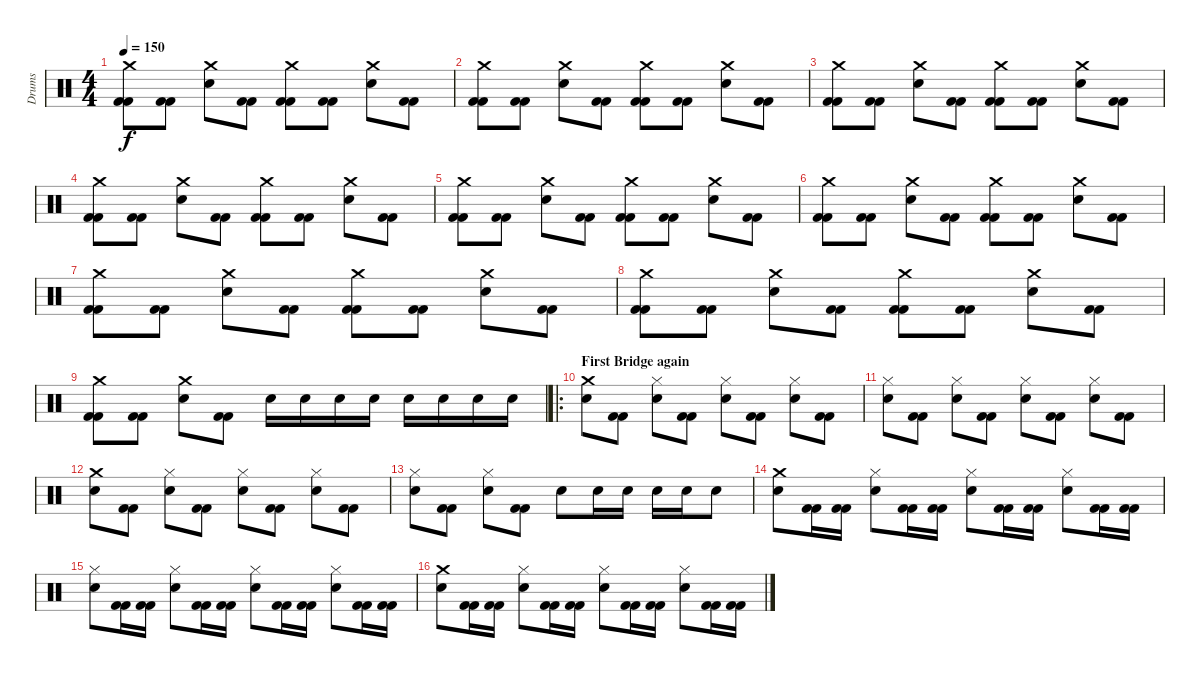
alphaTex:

\track ("Drums" "Drums") {instrument percussion}
\staff {score}
\articulation defaults
\ts (4 4)
\tempo 150
\clef neutral
\ks c
("Crash medium (hit)" "Kick (hit) 2" "Kick (hit) 2").8{dy f} ("Kick (hit) 2" "Kick (hit) 2").8 ("Electric Snare (hit)" "Crash medium (hit)").8 ("Kick (hit) 2" "Kick (hit) 2").8 ("Kick (hit) 2" "Crash medium (hit)" "Kick (hit) 2").8 ("Kick (hit) 2" "Kick (hit) 2").8 ("Crash medium (hit)" "Electric Snare (hit)").8 ("Kick (hit) 2" "Kick (hit) 2").8 |
("Crash medium (hit)" "Kick (hit) 2" "Kick (hit) 2").8 ("Kick (hit) 2" "Kick (hit) 2").8 ("Electric Snare (hit)" "Crash medium (hit)").8 ("Kick (hit) 2" "Kick (hit) 2").8 ("Kick (hit) 2" "Crash medium (hit)" "Kick (hit) 2").8 ("Kick (hit) 2" "Kick (hit) 2").8 ("Crash medium (hit)" "Electric Snare (hit)").8 ("Kick (hit) 2" "Kick (hit) 2").8 |
("Crash medium (hit)" "Kick (hit) 2" "Kick (hit) 2").8 ("Kick (hit) 2" "Kick (hit) 2").8 ("Electric Snare (hit)" "Crash medium (hit)").8 ("Kick (hit) 2" "Kick (hit) 2").8 ("Kick (hit) 2" "Crash medium (hit)" "Kick (hit) 2").8 ("Kick (hit) 2" "Kick (hit) 2").8 ("Crash medium (hit)" "Electric Snare (hit)").8 ("Kick (hit) 2" "Kick (hit) 2").8 |
("Crash medium (hit)" "Kick (hit) 2" "Kick (hit) 2").8 ("Kick (hit) 2" "Kick (hit) 2").8 ("Electric Snare (hit)" "Crash medium (hit)").8 ("Kick (hit) 2" "Kick (hit) 2").8 ("Kick (hit) 2" "Crash medium (hit)" "Kick (hit) 2").8 ("Kick (hit) 2" "Kick (hit) 2").8 ("Crash medium (hit)" "Electric Snare (hit)").8 ("Kick (hit) 2" "Kick (hit) 2").8 |
("Crash medium (hit)" "Kick (hit) 2" "Kick (hit) 2").8 ("Kick (hit) 2" "Kick (hit) 2").8 ("Electric Snare (hit)" "Crash medium (hit)").8 ("Kick (hit) 2" "Kick (hit) 2").8 ("Kick (hit) 2" "Crash medium (hit)" "Kick (hit) 2").8 ("Kick (hit) 2" "Kick (hit) 2").8 ("Crash medium (hit)" "Electric Snare (hit)").8 ("Kick (hit) 2" "Kick (hit) 2").8 |
("Crash medium (hit)" "Kick (hit) 2" "Kick (hit) 2").8 ("Kick (hit) 2" "Kick (hit) 2").8 ("Electric Snare (hit)" "Crash medium (hit)").8 ("Kick (hit) 2" "Kick (hit) 2").8 ("Kick (hit) 2" "Crash medium (hit)" "Kick (hit) 2").8 ("Kick (hit) 2" "Kick (hit) 2").8 ("Crash medium (hit)" "Electric Snare (hit)").8 ("Kick (hit) 2" "Kick (hit) 2").8 |
("Crash medium (hit)" "Kick (hit) 2" "Kick (hit) 2").8 ("Kick (hit) 2" "Kick (hit) 2").8 ("Electric Snare (hit)" "Crash medium (hit)").8 ("Kick (hit) 2" "Kick (hit) 2").8 ("Kick (hit) 2" "Crash medium (hit)" "Kick (hit) 2").8 ("Kick (hit) 2" "Kick (hit) 2").8 ("Crash medium (hit)" "Electric Snare (hit)").8 ("Kick (hit) 2" "Kick (hit) 2").8 |
("Crash medium (hit)" "Kick (hit) 2" "Kick (hit) 2").8 ("Kick (hit) 2" "Kick (hit) 2").8 ("Electric Snare (hit)" "Crash medium (hit)").8 ("Kick (hit) 2" "Kick (hit) 2").8 ("Kick (hit) 2" "Crash medium (hit)" "Kick (hit) 2").8 ("Kick (hit) 2" "Kick (hit) 2").8 ("Crash medium (hit)" "Electric Snare (hit)").8 ("Kick (hit) 2" "Kick (hit) 2").8 |
("Crash medium (hit)" "Kick (hit) 2" "Kick (hit) 2").8 ("Kick (hit) 2" "Kick (hit) 2").8 ("Electric Snare (hit)" "Crash medium (hit)").8 ("Kick (hit) 2" "Kick (hit) 2").8 "Electric Snare (hit)".16 "Electric Snare (hit)".16 "Electric Snare (hit)".16 "Electric Snare (hit)".16 "Electric Snare (hit)".16 "Electric Snare (hit)".16 "Electric Snare (hit)".16 "Electric Snare (hit)".16 |
\ro
\section ("" "First Bridge again")
("Crash medium (hit)" "Electric Snare (hit)").8 ("Kick (hit) 2" "Kick (hit) 2").8 ("Electric Snare (hit)" "Hi-Hat (closed)").8 ("Kick (hit) 2" "Kick (hit) 2").8 ("Electric Snare (hit)" "Hi-Hat (closed)").8 ("Kick (hit) 2" "Kick (hit) 2").8 ("Electric Snare (hit)" "Hi-Hat (closed)").8 ("Kick (hit) 2" "Kick (hit) 2").8 |
("Hi-Hat (closed)" "Electric Snare (hit)").8 ("Kick (hit) 2" "Kick (hit) 2").8 ("Electric Snare (hit)" "Hi-Hat (closed)").8 ("Kick (hit) 2" "Kick (hit) 2").8 ("Electric Snare (hit)" "Hi-Hat (closed)").8 ("Kick (hit) 2" "Kick (hit) 2").8 ("Electric Snare (hit)" "Hi-Hat (closed)").8 ("Kick (hit) 2" "Kick (hit) 2").8 |
("Crash medium (hit)" "Electric Snare (hit)").8 ("Kick (hit) 2" "Kick (hit) 2").8 ("Electric Snare (hit)" "Hi-Hat (closed)").8 ("Kick (hit) 2" "Kick (hit) 2").8 ("Electric Snare (hit)" "Hi-Hat (closed)").8 ("Kick (hit) 2" "Kick (hit) 2").8 ("Electric Snare (hit)" "Hi-Hat (closed)").8 ("Kick (hit) 2" "Kick (hit) 2").8 |
("Hi-Hat (closed)" "Electric Snare (hit)").8 ("Kick (hit) 2" "Kick (hit) 2").8 ("Electric Snare (hit)" "Hi-Hat (closed)").8 ("Kick (hit) 2" "Kick (hit) 2").8 "Electric Snare (hit)".8 "Electric Snare (hit)".16 "Electric Snare (hit)".16 "Electric Snare (hit)".16 "Electric Snare (hit)".16 "Electric Snare (hit)".8 |
("Crash medium (hit)" "Electric Snare (hit)").8 ("Kick (hit) 2" "Kick (hit) 2").16 ("Kick (hit) 2" "Kick (hit) 2").16 ("Electric Snare (hit)" "Hi-Hat (closed)").8 ("Kick (hit) 2" "Kick (hit) 2").16 ("Kick (hit) 2" "Kick (hit) 2").16 ("Hi-Hat (closed)" "Electric Snare (hit)").8 ("Kick (hit) 2" "Kick (hit) 2").16 ("Kick (hit) 2" "Kick (hit) 2").16 ("Electric Snare (hit)" "Hi-Hat (closed)").8 ("Kick (hit) 2" "Kick (hit) 2").16 ("Kick (hit) 2" "Kick (hit) 2").16 |
("Hi-Hat (closed)" "Electric Snare (hit)").8 ("Kick (hit) 2" "Kick (hit) 2").16 ("Kick (hit) 2" "Kick (hit) 2").16 ("Electric Snare (hit)" "Hi-Hat (closed)").8 ("Kick (hit) 2" "Kick (hit) 2").16 ("Kick (hit) 2" "Kick (hit) 2").16 ("Hi-Hat (closed)" "Electric Snare (hit)").8 ("Kick (hit) 2" "Kick (hit) 2").16 ("Kick (hit) 2" "Kick (hit) 2").16 ("Electric Snare (hit)" "Hi-Hat (closed)").8 ("Kick (hit) 2" "Kick (hit) 2").16 ("Kick (hit) 2" "Kick (hit) 2").16 |
("Crash medium (hit)" "Electric Snare (hit)").8 ("Kick (hit) 2" "Kick (hit) 2").16 ("Kick (hit) 2" "Kick (hit) 2").16 ("Electric Snare (hit)" "Hi-Hat (closed)").8 ("Kick (hit) 2" "Kick (hit) 2").16 ("Kick (hit) 2" "Kick (hit) 2").16 ("Hi-Hat (closed)" "Electric Snare (hit)").8 ("Kick (hit) 2" "Kick (hit) 2").16 ("Kick (hit) 2" "Kick (hit) 2").16 ("Electric Snare (hit)" "Hi-Hat (closed)").8 ("Kick (hit) 2" "Kick (hit) 2").16 ("Kick (hit) 2" "Kick (hit) 2").16
